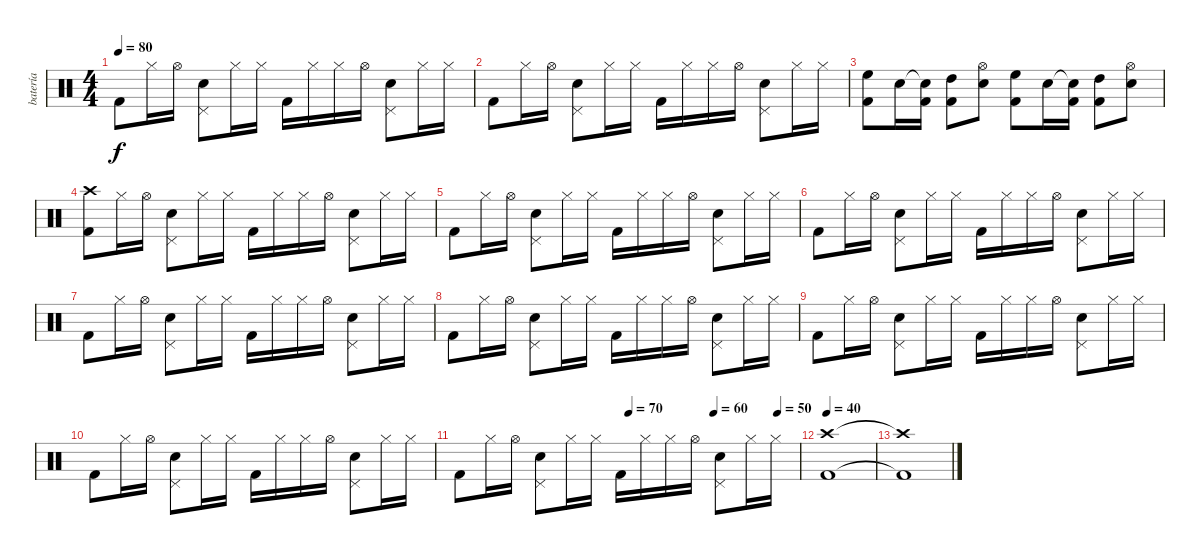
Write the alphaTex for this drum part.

\track ("batería" "batería") {instrument percussion}
\staff {score}
\articulation defaults
\ts (4 4)
\tempo 80
\clef neutral
\ks c "Kick (hit) 2".8{dy f} "Hi-Hat (closed)".16 "Hi-Hat (open)".16
("Snare (hit) 2" "Pedal Hi-Hat (hit)").8 "Hi-Hat (closed)".16 "Hi-Hat (closed)".16 "Kick (hit) 2".16 "Hi-Hat (closed)".16 "Hi-Hat (closed)".16 "Hi-Hat (open)".16 ("Snare (hit) 2" "Pedal Hi-Hat (hit)").8 "Hi-Hat (closed)".16 "Hi-Hat (closed)".16 |
"Kick (hit) 2".8 "Hi-Hat (closed)".16 "Hi-Hat (open)".16 ("Snare (hit) 2" "Pedal Hi-Hat (hit)").8 "Hi-Hat (closed)".16 "Hi-Hat (closed)".16 "Kick (hit) 2".16 "Hi-Hat (closed)".16 "Hi-Hat (closed)".16 "Hi-Hat (open)".16 ("Snare (hit) 2" "Pedal Hi-Hat (hit)").8 "Hi-Hat (closed)".16 "Hi-Hat (closed)".16 |
("High Floor Tom (hit)" "Kick (hit) 2").8 "Snare (hit) 2".16 ("Snare (hit) 2"{t} "Kick (hit) 2").16 ("High Tom (hit)" "Kick (hit) 2").8 ("Snare (hit) 2" "Hi-Hat (open)").8 ("High Floor Tom (hit)" "Kick (hit) 2").8 "Snare (hit) 2".16 ("Snare (hit) 2"{t} "Kick (hit) 2").16 ("High Tom (hit)" "Kick (hit) 2").8 ("Snare (hit) 2" "Hi-Hat (open)").8 |
("Kick (hit) 2" "Crash high (hit)").8 "Hi-Hat (closed)".16 "Hi-Hat (open)".16 ("Snare (hit) 2" "Pedal Hi-Hat (hit)").8 "Hi-Hat (closed)".16 "Hi-Hat (closed)".16 "Kick (hit) 2".16 "Hi-Hat (closed)".16 "Hi-Hat (closed)".16 "Hi-Hat (open)".16 ("Snare (hit) 2" "Pedal Hi-Hat (hit)").8 "Hi-Hat (closed)".16 "Hi-Hat (closed)".16 |
"Kick (hit) 2".8 "Hi-Hat (closed)".16 "Hi-Hat (open)".16 ("Snare (hit) 2" "Pedal Hi-Hat (hit)").8 "Hi-Hat (closed)".16 "Hi-Hat (closed)".16 "Kick (hit) 2".16 "Hi-Hat (closed)".16 "Hi-Hat (closed)".16 "Hi-Hat (open)".16 ("Snare (hit) 2" "Pedal Hi-Hat (hit)").8 "Hi-Hat (closed)".16 "Hi-Hat (closed)".16 |
"Kick (hit) 2".8 "Hi-Hat (closed)".16 "Hi-Hat (open)".16 ("Snare (hit) 2" "Pedal Hi-Hat (hit)").8 "Hi-Hat (closed)".16 "Hi-Hat (closed)".16 "Kick (hit) 2".16 "Hi-Hat (closed)".16 "Hi-Hat (closed)".16 "Hi-Hat (open)".16 ("Snare (hit) 2" "Pedal Hi-Hat (hit)").8 "Hi-Hat (closed)".16 "Hi-Hat (closed)".16 |
"Kick (hit) 2".8 "Hi-Hat (closed)".16 "Hi-Hat (open)".16 ("Snare (hit) 2" "Pedal Hi-Hat (hit)").8 "Hi-Hat (closed)".16 "Hi-Hat (closed)".16 "Kick (hit) 2".16 "Hi-Hat (closed)".16 "Hi-Hat (closed)".16 "Hi-Hat (open)".16 ("Snare (hit) 2" "Pedal Hi-Hat (hit)").8 "Hi-Hat (closed)".16 "Hi-Hat (closed)".16 |
"Kick (hit) 2".8 "Hi-Hat (closed)".16 "Hi-Hat (open)".16 ("Snare (hit) 2" "Pedal Hi-Hat (hit)").8 "Hi-Hat (closed)".16 "Hi-Hat (closed)".16 "Kick (hit) 2".16 "Hi-Hat (closed)".16 "Hi-Hat (closed)".16 "Hi-Hat (open)".16 ("Snare (hit) 2" "Pedal Hi-Hat (hit)").8 "Hi-Hat (closed)".16 "Hi-Hat (closed)".16 |
"Kick (hit) 2".8 "Hi-Hat (closed)".16 "Hi-Hat (open)".16 ("Snare (hit) 2" "Pedal Hi-Hat (hit)").8 "Hi-Hat (closed)".16 "Hi-Hat (closed)".16 "Kick (hit) 2".16 "Hi-Hat (closed)".16 "Hi-Hat (closed)".16 "Hi-Hat (open)".16 ("Snare (hit) 2" "Pedal Hi-Hat (hit)").8 "Hi-Hat (closed)".16 "Hi-Hat (closed)".16 |
"Kick (hit) 2".8 "Hi-Hat (closed)".16 "Hi-Hat (open)".16 ("Snare (hit) 2" "Pedal Hi-Hat (hit)").8 "Hi-Hat (closed)".16 "Hi-Hat (closed)".16 "Kick (hit) 2".16 "Hi-Hat (closed)".16 "Hi-Hat (closed)".16 "Hi-Hat (open)".16 ("Snare (hit) 2" "Pedal Hi-Hat (hit)").8 "Hi-Hat (closed)".16 "Hi-Hat (closed)".16 |
\tempo (70 0.5)
\tempo (60 0.75)
\tempo (50 0.9375)
"Kick (hit) 2".8 "Hi-Hat (closed)".16 "Hi-Hat (open)".16 ("Snare (hit) 2" "Pedal Hi-Hat (hit)").8 "Hi-Hat (closed)".16 "Hi-Hat (closed)".16 "Kick (hit) 2".16 "Hi-Hat (closed)".16 "Hi-Hat (closed)".16 "Hi-Hat (open)".16 ("Snare (hit) 2" "Pedal Hi-Hat (hit)").8 "Hi-Hat (closed)".16 "Hi-Hat (closed)".16 |
\tempo 40
("Crash high (hit)" "Kick (hit) 2").1 |
("Crash high (hit)"{t} "Kick (hit) 2"{t}).1
